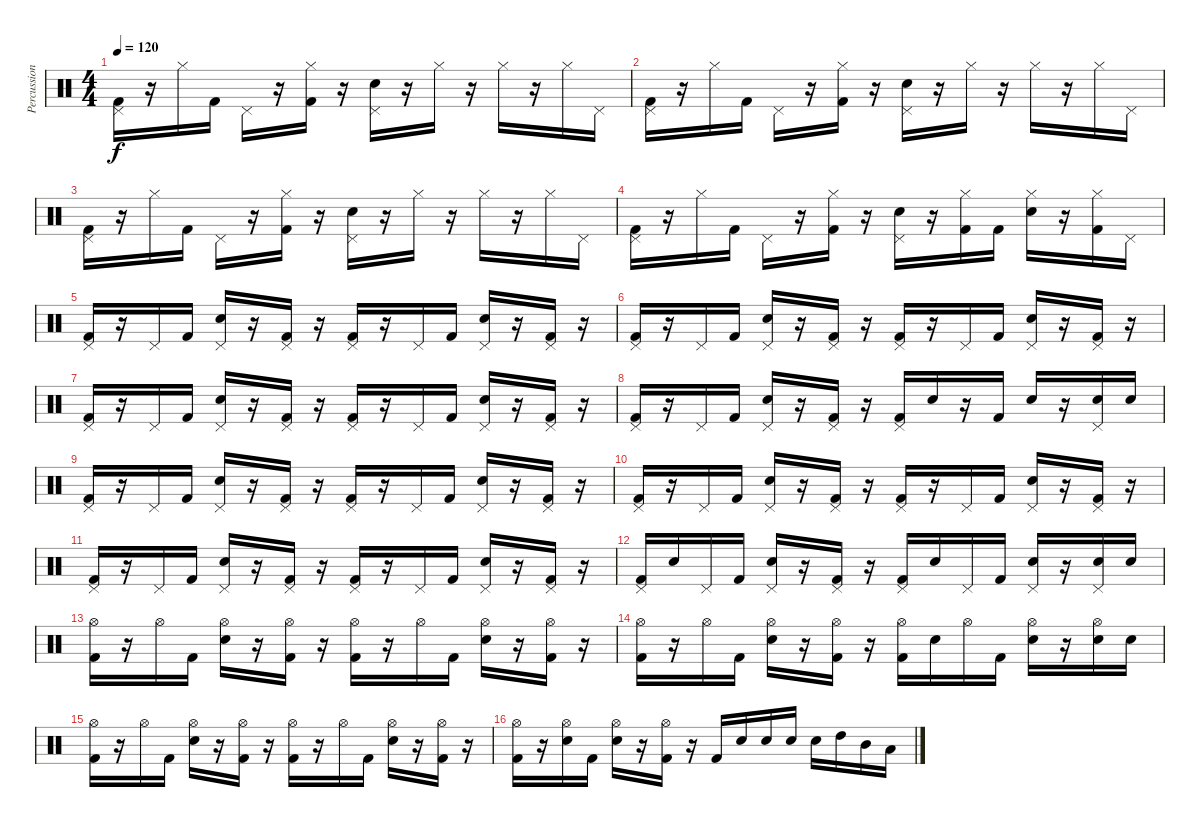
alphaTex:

\track ("Percussion" "Percussion") {instrument percussion}
\staff {score}
\articulation defaults
\ts (4 4)
\tempo 120
\clef neutral
\ks c
("Pedal Hi-Hat (hit)" "Kick (hit) 2").16{dy f} r.16 "Hi-Hat (closed)".16 "Kick (hit) 2".16 "Pedal Hi-Hat (hit)".16 r.16 ("Hi-Hat (closed)" "Kick (hit) 2").16 r.16 ("Pedal Hi-Hat (hit)" "Electric Snare (hit)").16 r.16 "Hi-Hat (closed)".16 r.16 "Hi-Hat (closed)".16 r.16 "Hi-Hat (closed)".16 "Pedal Hi-Hat (hit)".16 |
("Pedal Hi-Hat (hit)" "Kick (hit) 2").16 r.16 "Hi-Hat (closed)".16 "Kick (hit) 2".16 "Pedal Hi-Hat (hit)".16 r.16 ("Hi-Hat (closed)" "Kick (hit) 2").16 r.16 ("Pedal Hi-Hat (hit)" "Electric Snare (hit)").16 r.16 "Hi-Hat (closed)".16 r.16 "Hi-Hat (closed)".16 r.16 "Hi-Hat (closed)".16 "Pedal Hi-Hat (hit)".16 |
("Pedal Hi-Hat (hit)" "Kick (hit) 2").16 r.16 "Hi-Hat (closed)".16 "Kick (hit) 2".16 "Pedal Hi-Hat (hit)".16 r.16 ("Hi-Hat (closed)" "Kick (hit) 2").16 r.16 ("Pedal Hi-Hat (hit)" "Electric Snare (hit)").16 r.16 "Hi-Hat (closed)".16 r.16 "Hi-Hat (closed)".16 r.16 "Hi-Hat (closed)".16 "Pedal Hi-Hat (hit)".16 |
("Pedal Hi-Hat (hit)" "Kick (hit) 2").16 r.16 "Hi-Hat (closed)".16 "Kick (hit) 2".16 "Pedal Hi-Hat (hit)".16 r.16 ("Hi-Hat (closed)" "Kick (hit) 2").16 r.16 ("Pedal Hi-Hat (hit)" "Electric Snare (hit)").16 r.16 ("Hi-Hat (closed)" "Kick (hit) 2").16 "Kick (hit) 2".16 ("Hi-Hat (closed)" "Electric Snare (hit)").16 r.16 ("Hi-Hat (closed)" "Kick (hit) 2").16 "Pedal Hi-Hat (hit)".16 |
("Kick (hit) 2" "Pedal Hi-Hat (hit)").16 r.16 "Pedal Hi-Hat (hit)".16 "Kick (hit) 2".16 ("Electric Snare (hit)" "Pedal Hi-Hat (hit)").16 r.16 ("Kick (hit) 2" "Pedal Hi-Hat (hit)").16 r.16 ("Kick (hit) 2" "Pedal Hi-Hat (hit)").16 r.16 "Pedal Hi-Hat (hit)".16 "Kick (hit) 2".16 ("Electric Snare (hit)" "Pedal Hi-Hat (hit)").16 r.16 ("Kick (hit) 2" "Pedal Hi-Hat (hit)").16 r.16 |
("Kick (hit) 2" "Pedal Hi-Hat (hit)").16 r.16 "Pedal Hi-Hat (hit)".16 "Kick (hit) 2".16 ("Electric Snare (hit)" "Pedal Hi-Hat (hit)").16 r.16 ("Kick (hit) 2" "Pedal Hi-Hat (hit)").16 r.16 ("Kick (hit) 2" "Pedal Hi-Hat (hit)").16 r.16 "Pedal Hi-Hat (hit)".16 "Kick (hit) 2".16 ("Electric Snare (hit)" "Pedal Hi-Hat (hit)").16 r.16 ("Kick (hit) 2" "Pedal Hi-Hat (hit)").16 r.16 |
("Kick (hit) 2" "Pedal Hi-Hat (hit)").16 r.16 "Pedal Hi-Hat (hit)".16 "Kick (hit) 2".16 ("Electric Snare (hit)" "Pedal Hi-Hat (hit)").16 r.16 ("Kick (hit) 2" "Pedal Hi-Hat (hit)").16 r.16 ("Kick (hit) 2" "Pedal Hi-Hat (hit)").16 r.16 "Pedal Hi-Hat (hit)".16 "Kick (hit) 2".16 ("Electric Snare (hit)" "Pedal Hi-Hat (hit)").16 r.16 ("Kick (hit) 2" "Pedal Hi-Hat (hit)").16 r.16 |
("Kick (hit) 2" "Pedal Hi-Hat (hit)").16 r.16 "Pedal Hi-Hat (hit)".16 "Kick (hit) 2".16 ("Electric Snare (hit)" "Pedal Hi-Hat (hit)").16 r.16 ("Kick (hit) 2" "Pedal Hi-Hat (hit)").16 r.16 ("Kick (hit) 2" "Pedal Hi-Hat (hit)").16 "Electric Snare (hit)".16 r.16 "Kick (hit) 2".16 "Electric Snare (hit)".16 r.16 ("Electric Snare (hit)" "Pedal Hi-Hat (hit)").16 "Electric Snare (hit)".16 |
("Kick (hit) 2" "Pedal Hi-Hat (hit)").16 r.16 "Pedal Hi-Hat (hit)".16 "Kick (hit) 2".16 ("Electric Snare (hit)" "Pedal Hi-Hat (hit)").16 r.16 ("Kick (hit) 2" "Pedal Hi-Hat (hit)").16 r.16 ("Kick (hit) 2" "Pedal Hi-Hat (hit)").16 r.16 "Pedal Hi-Hat (hit)".16 "Kick (hit) 2".16 ("Electric Snare (hit)" "Pedal Hi-Hat (hit)").16 r.16 ("Kick (hit) 2" "Pedal Hi-Hat (hit)").16 r.16 |
("Kick (hit) 2" "Pedal Hi-Hat (hit)").16 r.16 "Pedal Hi-Hat (hit)".16 "Kick (hit) 2".16 ("Electric Snare (hit)" "Pedal Hi-Hat (hit)").16 r.16 ("Kick (hit) 2" "Pedal Hi-Hat (hit)").16 r.16 ("Kick (hit) 2" "Pedal Hi-Hat (hit)").16 r.16 "Pedal Hi-Hat (hit)".16 "Kick (hit) 2".16 ("Electric Snare (hit)" "Pedal Hi-Hat (hit)").16 r.16 ("Kick (hit) 2" "Pedal Hi-Hat (hit)").16 r.16 |
("Kick (hit) 2" "Pedal Hi-Hat (hit)").16 r.16 "Pedal Hi-Hat (hit)".16 "Kick (hit) 2".16 ("Electric Snare (hit)" "Pedal Hi-Hat (hit)").16 r.16 ("Kick (hit) 2" "Pedal Hi-Hat (hit)").16 r.16 ("Kick (hit) 2" "Pedal Hi-Hat (hit)").16 r.16 "Pedal Hi-Hat (hit)".16 "Kick (hit) 2".16 ("Electric Snare (hit)" "Pedal Hi-Hat (hit)").16 r.16 ("Kick (hit) 2" "Pedal Hi-Hat (hit)").16 r.16 |
("Kick (hit) 2" "Pedal Hi-Hat (hit)").16 "Electric Snare (hit)".16 "Pedal Hi-Hat (hit)".16 "Kick (hit) 2".16 ("Electric Snare (hit)" "Pedal Hi-Hat (hit)").16 r.16 ("Kick (hit) 2" "Pedal Hi-Hat (hit)").16 r.16 ("Kick (hit) 2" "Pedal Hi-Hat (hit)").16 "Electric Snare (hit)".16 "Pedal Hi-Hat (hit)".16 "Kick (hit) 2".16 ("Electric Snare (hit)" "Pedal Hi-Hat (hit)").16 r.16 ("Electric Snare (hit)" "Pedal Hi-Hat (hit)").16 "Electric Snare (hit)".16 |
("Kick (hit) 2" "Hi-Hat (open)").16 r.16 "Hi-Hat (open)".16 "Kick (hit) 2".16 ("Electric Snare (hit)" "Hi-Hat (open)").16 r.16 ("Kick (hit) 2" "Hi-Hat (open)").16 r.16 ("Kick (hit) 2" "Hi-Hat (open)").16 r.16 "Hi-Hat (open)".16 "Kick (hit) 2".16 ("Electric Snare (hit)" "Hi-Hat (open)").16 r.16 ("Kick (hit) 2" "Hi-Hat (open)").16 r.16 |
("Kick (hit) 2" "Hi-Hat (open)").16 r.16 "Hi-Hat (open)".16 "Kick (hit) 2".16 ("Electric Snare (hit)" "Hi-Hat (open)").16 r.16 ("Kick (hit) 2" "Hi-Hat (open)").16 r.16 ("Kick (hit) 2" "Hi-Hat (open)").16 "Electric Snare (hit)".16 "Hi-Hat (open)".16 "Kick (hit) 2".16 ("Electric Snare (hit)" "Hi-Hat (open)").16 r.16 ("Electric Snare (hit)" "Hi-Hat (open)").16 "Electric Snare (hit)".16 |
("Kick (hit) 2" "Hi-Hat (open)").16 r.16 "Hi-Hat (open)".16 "Kick (hit) 2".16 ("Electric Snare (hit)" "Hi-Hat (open)").16 r.16 ("Kick (hit) 2" "Hi-Hat (open)").16 r.16 ("Kick (hit) 2" "Hi-Hat (open)").16 r.16 "Hi-Hat (open)".16 "Kick (hit) 2".16 ("Electric Snare (hit)" "Hi-Hat (open)").16 r.16 ("Kick (hit) 2" "Hi-Hat (open)").16 r.16 |
("Kick (hit) 2" "Hi-Hat (open)").16 r.16 ("Snare (hit)" "Hi-Hat (open)").16 "Kick (hit) 2".16 ("Electric Snare (hit)" "Hi-Hat (open)").16 r.16 ("Kick (hit) 2" "Hi-Hat (open)").16 r.16 "Kick (hit) 2".16 "Electric Snare (hit)".16 "Electric Snare (hit)".16 "Electric Snare (hit)".16 "Electric Snare (hit)".16 "High Tom (hit)".16 "Mid Tom (hit)".16 "Low Tom (hit)".16
